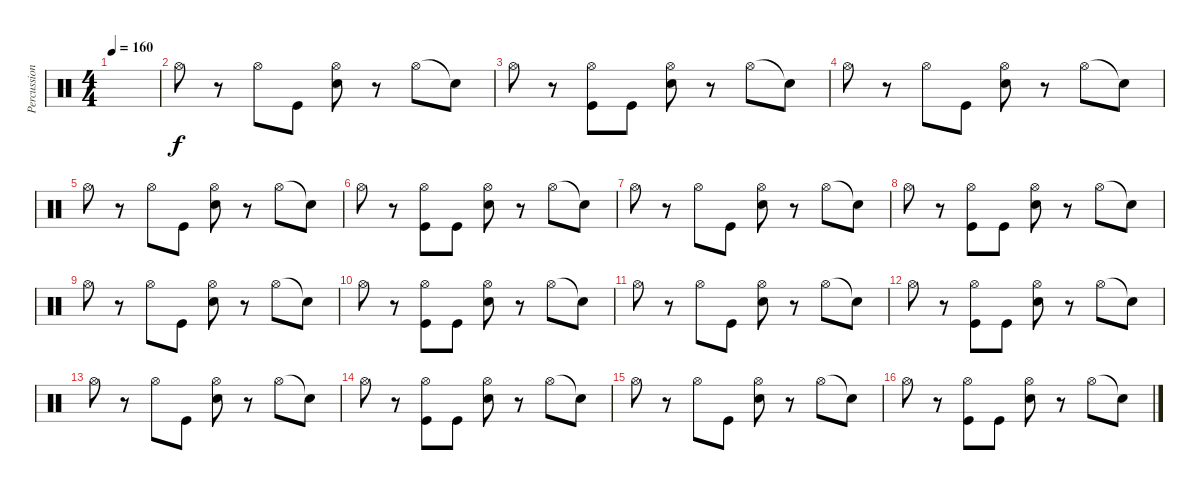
\track ("Percussion" "Percussion") {instrument percussion}
\staff {score}
\articulation defaults
\ts (4 4)
\tempo 160
\clef neutral
\ks c
|
"Hi-Hat (open)".8 r.8 "Hi-Hat (open)".8 "Kick (hit)".8 ("Hi-Hat (open)" "Snare (hit) 2").8 r.8 "Hi-Hat (open)".8 "Snare (hit)"{t}.8 |
"Hi-Hat (open)".8 r.8 ("Hi-Hat (open)" "Kick (hit)").8 "Kick (hit)".8 ("Hi-Hat (open)" "Snare (hit) 2").8 r.8 "Hi-Hat (open)".8 "Snare (hit)"{t}.8 |
"Hi-Hat (open)".8 r.8 "Hi-Hat (open)".8 "Kick (hit)".8 ("Hi-Hat (open)" "Snare (hit) 2").8 r.8 "Hi-Hat (open)".8 "Snare (hit)"{t}.8 |
"Hi-Hat (open)".8 r.8 "Hi-Hat (open)".8 "Kick (hit)".8 ("Hi-Hat (open)" "Snare (hit) 2").8 r.8 "Hi-Hat (open)".8 "Snare (hit)"{t}.8 |
"Hi-Hat (open)".8 r.8 ("Hi-Hat (open)" "Kick (hit)").8 "Kick (hit)".8 ("Hi-Hat (open)" "Snare (hit) 2").8 r.8 "Hi-Hat (open)".8 "Snare (hit)"{t}.8 |
"Hi-Hat (open)".8 r.8 "Hi-Hat (open)".8 "Kick (hit)".8 ("Hi-Hat (open)" "Snare (hit) 2").8 r.8 "Hi-Hat (open)".8 "Snare (hit)"{t}.8 |
"Hi-Hat (open)".8 r.8 ("Hi-Hat (open)" "Kick (hit)").8 "Kick (hit)".8 ("Hi-Hat (open)" "Snare (hit) 2").8 r.8 "Hi-Hat (open)".8 "Snare (hit)"{t}.8 |
"Hi-Hat (open)".8 r.8 "Hi-Hat (open)".8 "Kick (hit)".8 ("Hi-Hat (open)" "Snare (hit) 2").8 r.8 "Hi-Hat (open)".8 "Snare (hit)"{t}.8 |
"Hi-Hat (open)".8 r.8 ("Hi-Hat (open)" "Kick (hit)").8 "Kick (hit)".8 ("Hi-Hat (open)" "Snare (hit) 2").8 r.8 "Hi-Hat (open)".8 "Snare (hit)"{t}.8 |
"Hi-Hat (open)".8 r.8 "Hi-Hat (open)".8 "Kick (hit)".8 ("Hi-Hat (open)" "Snare (hit) 2").8 r.8 "Hi-Hat (open)".8 "Snare (hit)"{t}.8 |
"Hi-Hat (open)".8 r.8 ("Hi-Hat (open)" "Kick (hit)").8 "Kick (hit)".8 ("Hi-Hat (open)" "Snare (hit) 2").8 r.8 "Hi-Hat (open)".8 "Snare (hit)"{t}.8 |
"Hi-Hat (open)".8 r.8 "Hi-Hat (open)".8 "Kick (hit)".8 ("Hi-Hat (open)" "Snare (hit) 2").8 r.8 "Hi-Hat (open)".8 "Snare (hit)"{t}.8 |
"Hi-Hat (open)".8 r.8 ("Hi-Hat (open)" "Kick (hit)").8 "Kick (hit)".8 ("Hi-Hat (open)" "Snare (hit) 2").8 r.8 "Hi-Hat (open)".8 "Snare (hit)"{t}.8 |
"Hi-Hat (open)".8 r.8 "Hi-Hat (open)".8 "Kick (hit)".8 ("Hi-Hat (open)" "Snare (hit) 2").8 r.8 "Hi-Hat (open)".8 "Snare (hit)"{t}.8 |
"Hi-Hat (open)".8 r.8 ("Hi-Hat (open)" "Kick (hit)").8 "Kick (hit)".8 ("Hi-Hat (open)" "Snare (hit) 2").8 r.8 "Hi-Hat (open)".8 "Snare (hit)"{t}.8
